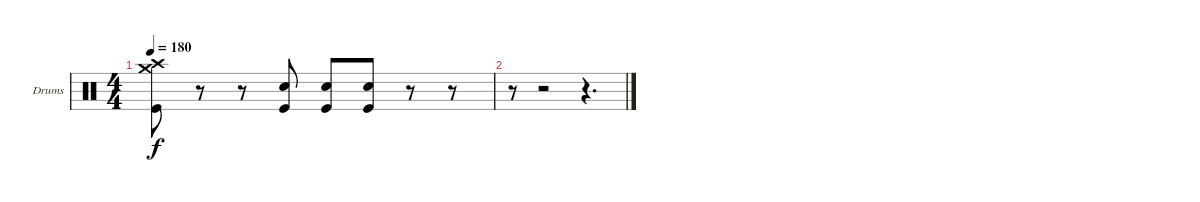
\bracketExtendMode groupsimilarinstruments
\firstSystemTrackNameOrientation horizontal
\otherSystemsTrackNameOrientation horizontal
\track ("Drumkit" "Drums") {instrument percussion}
\staff {score}
\articulation defaults
\ts (4 4)
\tempo 180
\clef neutral
\ks c
("Crash high (hit)" "Crash medium (hit)" "Kick (hit)").8{dy f} r.8 r.8 ("Snare (hit) 2" "Kick (hit)").8 ("Snare (hit) 2" "Kick (hit)").8 ("Snare (hit) 2" "Kick (hit)").8 r.8 r.8 |
r.8 r.2 r.4{d}
